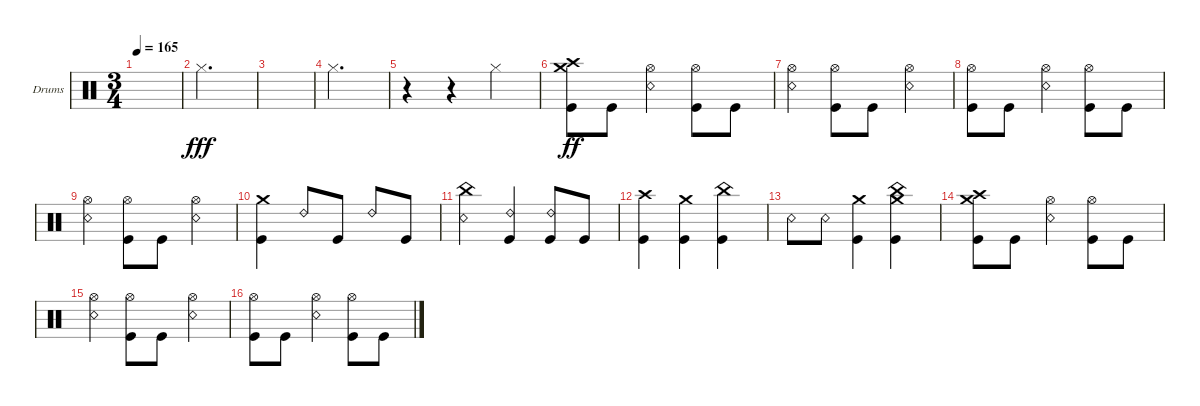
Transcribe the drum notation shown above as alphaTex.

\bracketExtendMode groupsimilarinstruments
\firstSystemTrackNameOrientation horizontal
\otherSystemsTrackNameOrientation horizontal
\track ("Kaleb - Drums" "Drums") {instrument percussion}
\staff {score}
\articulation defaults
\ts (3 4)
\tempo 165
\clef neutral
\ks c
|
"Hi-Hat (closed)".2{d dy fff} |
|
"Hi-Hat (closed)".2{d} |
r.4 r.4 "Hi-Hat (closed)".4 |
("Kick (hit)" "Crash medium (hit)" "Crash high (hit)").8{dy ff} "Kick (hit)".8 ("Hi-Hat (open)" "Snare (rim shot)").4 ("Kick (hit)" "Hi-Hat (open)").8 "Kick (hit)".8 |
("Hi-Hat (open)" "Snare (rim shot)").4 ("Kick (hit)" "Hi-Hat (open)").8 "Kick (hit)".8 ("Hi-Hat (open)" "Snare (rim shot)").4 |
("Kick (hit)" "Hi-Hat (open)").8 "Kick (hit)".8 ("Hi-Hat (open)" "Snare (rim shot)").4 ("Kick (hit)" "Hi-Hat (open)").8 "Kick (hit)".8 |
("Hi-Hat (open)" "Snare (rim shot)").4 ("Kick (hit)" "Hi-Hat (open)").8 "Kick (hit)".8 ("Hi-Hat (open)" "Snare (rim shot)").4 |
("Kick (hit)" "Crash medium (hit)").4 "Ride (bell) 2".8 "Kick (hit)".8 "Ride (bell) 2".8 "Kick (hit)".8 |
("Snare (rim shot)" "China (hit)").4 ("Ride (bell) 2" "Kick (hit)").4 ("Ride (bell) 2" "Kick (hit)").8 "Kick (hit)".8 |
("Kick (hit)" "Crash high (hit)").4 ("Kick (hit)" "Crash medium (hit)").4 ("Kick (hit)" "China (hit)").4 |
"Snare (rim shot)".8 "Snare (rim shot)".8 ("Kick (hit)" "Crash medium (hit)").4 ("Kick (hit)" "Crash medium (hit)" "China (hit)").4 |
("Kick (hit)" "Crash medium (hit)" "Crash high (hit)").8 "Kick (hit)".8 ("Hi-Hat (open)" "Snare (rim shot)").4 ("Kick (hit)" "Hi-Hat (open)").8 "Kick (hit)".8 |
("Hi-Hat (open)" "Snare (rim shot)").4 ("Kick (hit)" "Hi-Hat (open)").8 "Kick (hit)".8 ("Hi-Hat (open)" "Snare (rim shot)").4 |
("Kick (hit)" "Hi-Hat (open)").8 "Kick (hit)".8 ("Hi-Hat (open)" "Snare (rim shot)").4 ("Kick (hit)" "Hi-Hat (open)").8 "Kick (hit)".8
